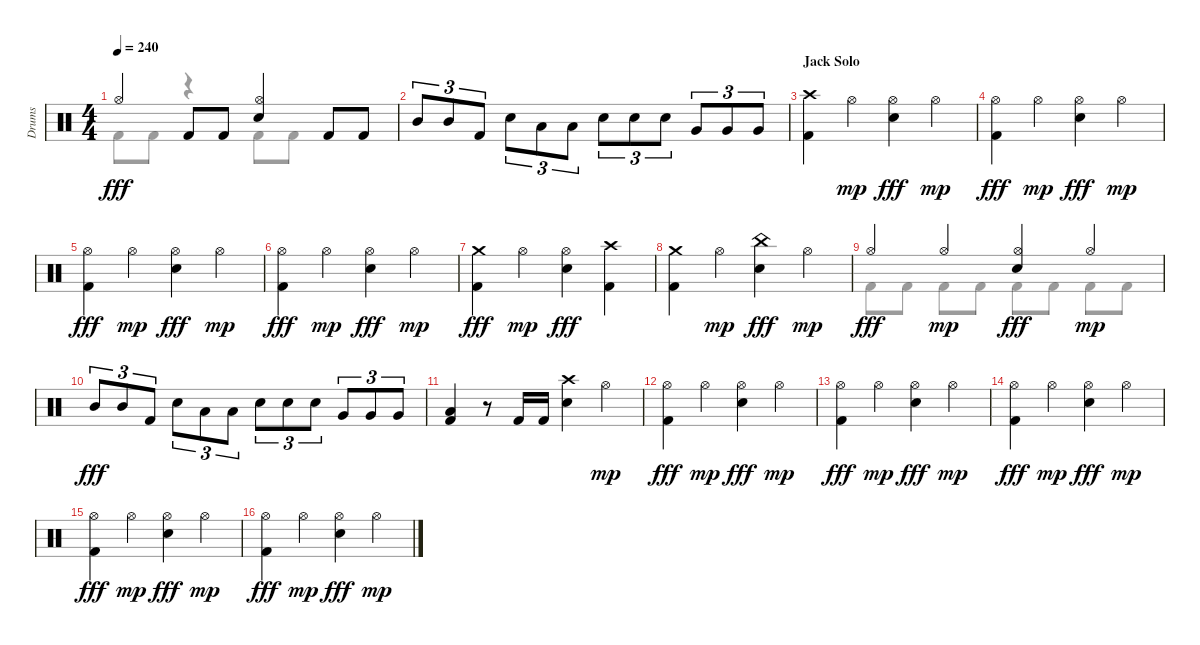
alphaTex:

\track ("Drums" "Drums") {instrument percussion}
\staff {score}
\articulation defaults
\voice
\ts (4 4)
\tempo 240
\clef neutral
\ks aminor "Hi-Hat (open)".4{dy fff} "Kick (hit) 2".8 "Kick (hit) 2".8
("Hi-Hat (open)" "Snare (hit) 2").4 "Kick (hit) 2".8 "Kick (hit) 2".8 |
"Mid Tom (hit)".8{tu (3 2)} "Mid Tom (hit)".8{tu (3 2)} "Kick (hit) 2".8{tu (3 2)} "Snare (hit) 2".8{tu (3 2)} "Low Tom (hit)".8{tu (3 2)} "Low Tom (hit)".8{tu (3 2)} "Snare (hit) 2".8{tu (3 2)} "Snare (hit) 2".8{tu (3 2)} "Snare (hit) 2".8{tu (3 2)} "Very Low Tom (hit)".8{tu (3 2)} "Very Low Tom (hit)".8{tu (3 2)} "Very Low Tom (hit)".8{tu (3 2)} |
\section ("" "Jack Solo")
("Kick (hit) 2" "Crash high (hit)").4 "Hi-Hat (open)".4{dy mp} ("Hi-Hat (open)" "Snare (hit) 2").4{dy fff} "Hi-Hat (open)".4{dy mp} |
("Kick (hit) 2" "Hi-Hat (open)").4{dy fff} "Hi-Hat (open)".4{dy mp} ("Hi-Hat (open)" "Snare (hit) 2").4{dy fff} "Hi-Hat (open)".4{dy mp} |
("Kick (hit) 2" "Hi-Hat (open)").4{dy fff} "Hi-Hat (open)".4{dy mp} ("Snare (hit) 2" "Hi-Hat (open)").4{dy fff} "Hi-Hat (open)".4{dy mp} |
("Kick (hit) 2" "Hi-Hat (open)").4{dy fff} "Hi-Hat (open)".4{dy mp} ("Hi-Hat (open)" "Snare (hit) 2").4{dy fff} "Hi-Hat (open)".4{dy mp} |
("Kick (hit) 2" "Crash medium (hit)").4{dy fff} "Hi-Hat (open)".4{dy mp} ("Snare (hit) 2" "Hi-Hat (open)").4{dy fff} ("Kick (hit) 2" "Crash high (hit)").4 |
("Kick (hit) 2" "Crash medium (hit)").4 "Hi-Hat (open)".4{dy mp} ("Snare (hit) 2" "China (hit)").4{dy fff} "Hi-Hat (open)".4{dy mp} |
"Hi-Hat (open)".4{dy fff} "Hi-Hat (open)".4{dy mp} ("Snare (hit) 2" "Hi-Hat (open)").4{dy fff} "Hi-Hat (open)".4{dy mp} |
"Mid Tom (hit)".8{tu (3 2) dy fff} "Mid Tom (hit)".8{tu (3 2)} "Kick (hit) 2".8{tu (3 2)} "Snare (hit) 2".8{tu (3 2)} "Low Tom (hit)".8{tu (3 2)} "Low Tom (hit)".8{tu (3 2)} "Snare (hit) 2".8{tu (3 2)} "Snare (hit) 2".8{tu (3 2)} "Snare (hit) 2".8{tu (3 2)} "Very Low Tom (hit)".8{tu (3 2)} "Very Low Tom (hit)".8{tu (3 2)} "Very Low Tom (hit)".8{tu (3 2)} |
("Kick (hit) 2" "Low Floor Tom (hit)").4 r.8 "Kick (hit) 2".16 "Kick (hit) 2".16 ("Crash high (hit)" "Snare (hit) 2").4 "Hi-Hat (open)".4{dy mp} |
("Kick (hit) 2" "Hi-Hat (open)").4{dy fff} "Hi-Hat (open)".4{dy mp} ("Snare (hit) 2" "Hi-Hat (open)").4{dy fff} "Hi-Hat (open)".4{dy mp} |
("Kick (hit) 2" "Hi-Hat (open)").4{dy fff} "Hi-Hat (open)".4{dy mp} ("Hi-Hat (open)" "Snare (hit) 2").4{dy fff} "Hi-Hat (open)".4{dy mp} |
("Hi-Hat (open)" "Kick (hit) 2").4{dy fff} "Hi-Hat (open)".4{dy mp} ("Hi-Hat (open)" "Snare (hit) 2").4{dy fff} "Hi-Hat (open)".4{dy mp} |
("Kick (hit) 2" "Hi-Hat (open)").4{dy fff} "Hi-Hat (open)".4{dy mp} ("Hi-Hat (open)" "Snare (hit) 2").4{dy fff} "Hi-Hat (open)".4{dy mp} |
("Hi-Hat (open)" "Kick (hit) 2").4{dy fff} "Hi-Hat (open)".4{dy mp} ("Snare (hit) 2" "Hi-Hat (open)").4{dy fff} "Hi-Hat (open)".4{dy mp}
\voice
\clef neutral
\ottava regular
\simile none
\ks aminor "Kick (hit) 2".8{dy fff} "Kick (hit) 2".8
r.4 "Kick (hit) 2".8 "Kick (hit) 2".8 |
|
|
|
|
|
|
|
"Kick (hit) 2".8 "Kick (hit) 2".8 "Kick (hit) 2".8 "Kick (hit) 2".8 "Kick (hit) 2".8 "Kick (hit) 2".8 "Kick (hit) 2".8 "Kick (hit) 2".8 |
|
|
|
|
|
|
